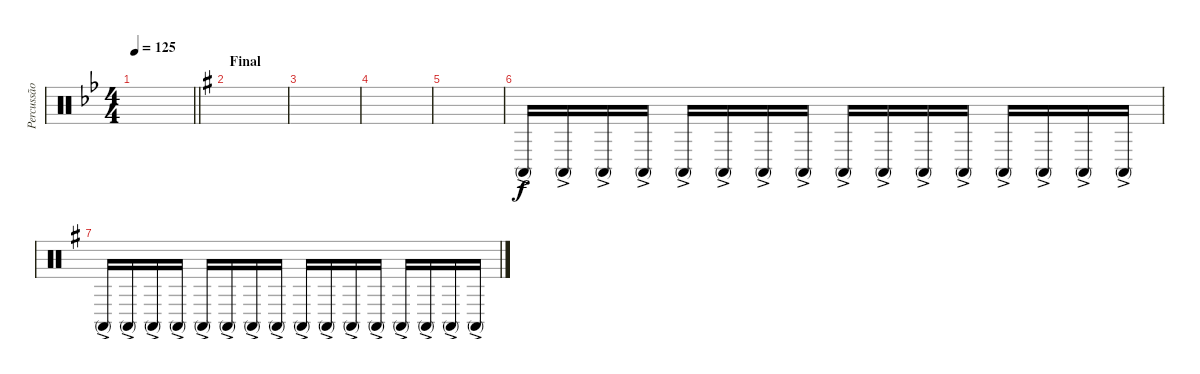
\track ("Percussão" "Percussão") {instrument percussion}
\staff {score}
\articulation defaults
\ts (4 4)
\tempo 125
\clef neutral
\barLineRight lightlight
\ks bb
|
\section ("" "Final")
\ks eminor
|
|
|
|
"Conga high (mute)"{ac}.16 "Conga high (mute)"{ac}.16 "Conga high (mute)"{ac}.16 "Conga high (mute)"{ac}.16 "Conga high (mute)"{ac}.16 "Conga high (mute)"{ac}.16 "Conga high (mute)"{ac}.16 "Conga high (mute)"{ac}.16 "Conga high (mute)"{ac}.16 "Conga high (mute)"{ac}.16 "Conga high (mute)"{ac}.16 "Conga high (mute)"{ac}.16 "Conga high (mute)"{ac}.16 "Conga high (mute)"{ac}.16 "Conga high (mute)"{ac}.16 "Conga high (mute)"{ac}.16 |
"Conga high (mute)"{ac}.16 "Conga high (mute)"{ac}.16 "Conga high (mute)"{ac}.16 "Conga high (mute)"{ac}.16 "Conga high (mute)"{ac}.16 "Conga high (mute)"{ac}.16 "Conga high (mute)"{ac}.16 "Conga high (mute)"{ac}.16 "Conga high (mute)"{ac}.16 "Conga high (mute)"{ac}.16 "Conga high (mute)"{ac}.16 "Conga high (mute)"{ac}.16 "Conga high (mute)"{ac}.16 "Conga high (mute)"{ac}.16 "Conga high (mute)"{ac}.16 "Conga high (mute)"{ac}.16
